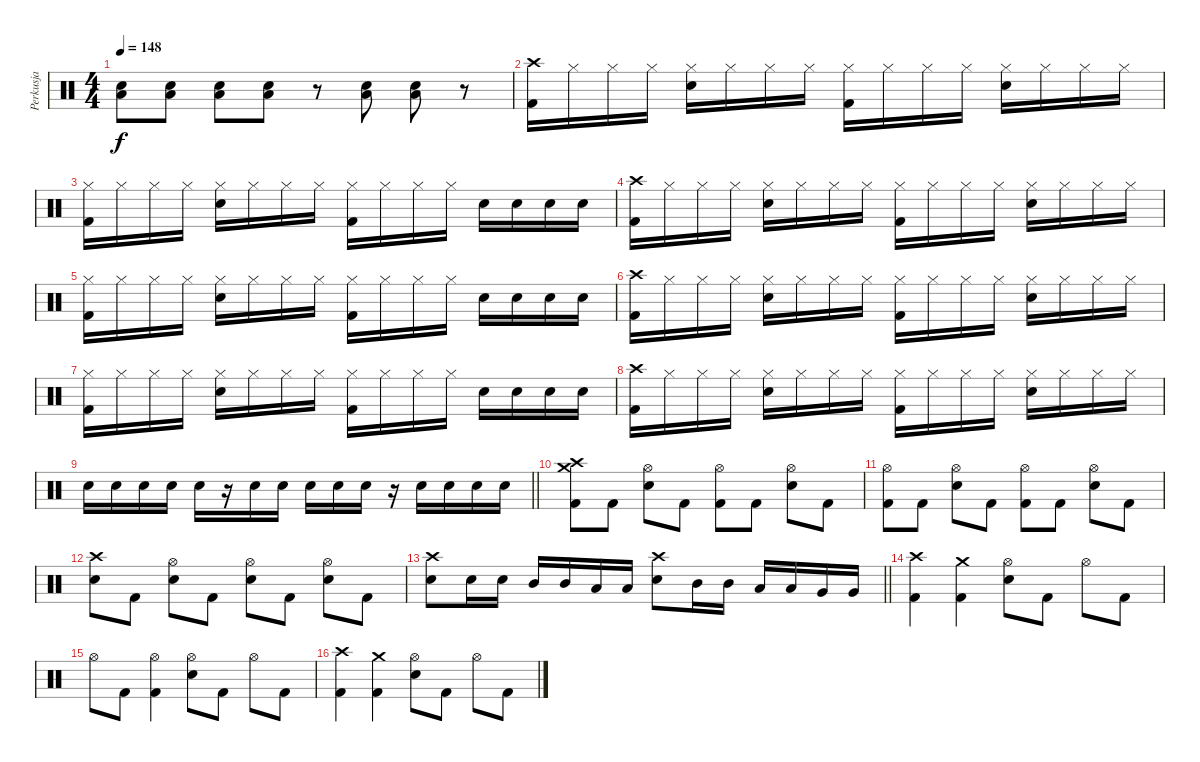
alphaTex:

\track ("Perkusja" "Perkusja") {instrument percussion}
\staff {score}
\articulation defaults
\ts (4 4)
\tempo 148
\clef neutral
\ks c
("Snare (hit) 2" "Low Floor Tom (hit)").8{dy f} ("Snare (hit) 2" "Low Floor Tom (hit)").8 ("Snare (hit) 2" "Low Floor Tom (hit)").8 ("Snare (hit) 2" "Low Floor Tom (hit)").8 r.8 ("Snare (hit) 2" "Low Floor Tom (hit)").8 ("Snare (hit) 2" "Low Floor Tom (hit)").8 r.8 |
("Crash high (hit)" "Kick (hit) 2").16 "Hi-Hat (closed)".16 "Hi-Hat (closed)".16 "Hi-Hat (closed)".16 ("Hi-Hat (closed)" "Snare (hit) 2").16 "Hi-Hat (closed)".16 "Hi-Hat (closed)".16 "Hi-Hat (closed)".16 ("Hi-Hat (closed)" "Kick (hit) 2").16 "Hi-Hat (closed)".16 "Hi-Hat (closed)".16 "Hi-Hat (closed)".16 ("Hi-Hat (closed)" "Snare (hit) 2").16 "Hi-Hat (closed)".16 "Hi-Hat (closed)".16 "Hi-Hat (closed)".16 |
("Hi-Hat (closed)" "Kick (hit) 2").16 "Hi-Hat (closed)".16 "Hi-Hat (closed)".16 "Hi-Hat (closed)".16 ("Hi-Hat (closed)" "Snare (hit) 2").16 "Hi-Hat (closed)".16 "Hi-Hat (closed)".16 "Hi-Hat (closed)".16 ("Hi-Hat (closed)" "Kick (hit) 2").16 "Hi-Hat (closed)".16 "Hi-Hat (closed)".16 "Hi-Hat (closed)".16 "Snare (hit) 2".16 "Snare (hit) 2".16 "Snare (hit) 2".16 "Snare (hit) 2".16 |
("Crash high (hit)" "Kick (hit) 2").16 "Hi-Hat (closed)".16 "Hi-Hat (closed)".16 "Hi-Hat (closed)".16 ("Hi-Hat (closed)" "Snare (hit) 2").16 "Hi-Hat (closed)".16 "Hi-Hat (closed)".16 "Hi-Hat (closed)".16 ("Hi-Hat (closed)" "Kick (hit) 2").16 "Hi-Hat (closed)".16 "Hi-Hat (closed)".16 "Hi-Hat (closed)".16 ("Hi-Hat (closed)" "Snare (hit) 2").16 "Hi-Hat (closed)".16 "Hi-Hat (closed)".16 "Hi-Hat (closed)".16 |
("Hi-Hat (closed)" "Kick (hit) 2").16 "Hi-Hat (closed)".16 "Hi-Hat (closed)".16 "Hi-Hat (closed)".16 ("Hi-Hat (closed)" "Snare (hit) 2").16 "Hi-Hat (closed)".16 "Hi-Hat (closed)".16 "Hi-Hat (closed)".16 ("Hi-Hat (closed)" "Kick (hit) 2").16 "Hi-Hat (closed)".16 "Hi-Hat (closed)".16 "Hi-Hat (closed)".16 "Snare (hit) 2".16 "Snare (hit) 2".16 "Snare (hit) 2".16 "Snare (hit) 2".16 |
("Crash high (hit)" "Kick (hit) 2").16 "Hi-Hat (closed)".16 "Hi-Hat (closed)".16 "Hi-Hat (closed)".16 ("Hi-Hat (closed)" "Snare (hit) 2").16 "Hi-Hat (closed)".16 "Hi-Hat (closed)".16 "Hi-Hat (closed)".16 ("Hi-Hat (closed)" "Kick (hit) 2").16 "Hi-Hat (closed)".16 "Hi-Hat (closed)".16 "Hi-Hat (closed)".16 ("Hi-Hat (closed)" "Snare (hit) 2").16 "Hi-Hat (closed)".16 "Hi-Hat (closed)".16 "Hi-Hat (closed)".16 |
("Hi-Hat (closed)" "Kick (hit) 2").16 "Hi-Hat (closed)".16 "Hi-Hat (closed)".16 "Hi-Hat (closed)".16 ("Hi-Hat (closed)" "Snare (hit) 2").16 "Hi-Hat (closed)".16 "Hi-Hat (closed)".16 "Hi-Hat (closed)".16 ("Hi-Hat (closed)" "Kick (hit) 2").16 "Hi-Hat (closed)".16 "Hi-Hat (closed)".16 "Hi-Hat (closed)".16 "Snare (hit) 2".16 "Snare (hit) 2".16 "Snare (hit) 2".16 "Snare (hit) 2".16 |
("Crash high (hit)" "Kick (hit) 2").16 "Hi-Hat (closed)".16 "Hi-Hat (closed)".16 "Hi-Hat (closed)".16 ("Hi-Hat (closed)" "Snare (hit) 2").16 "Hi-Hat (closed)".16 "Hi-Hat (closed)".16 "Hi-Hat (closed)".16 ("Hi-Hat (closed)" "Kick (hit) 2").16 "Hi-Hat (closed)".16 "Hi-Hat (closed)".16 "Hi-Hat (closed)".16 ("Hi-Hat (closed)" "Snare (hit) 2").16 "Hi-Hat (closed)".16 "Hi-Hat (closed)".16 "Hi-Hat (closed)".16 |
\barLineRight lightlight "Snare (hit) 2".16 "Snare (hit) 2".16 "Snare (hit) 2".16 "Snare (hit) 2".16 "Snare (hit) 2".16
r.16 "Snare (hit) 2".16 "Snare (hit) 2".16 "Snare (hit) 2".16 "Snare (hit) 2".16 "Snare (hit) 2".16 r.16 "Snare (hit) 2".16 "Snare (hit) 2".16 "Snare (hit) 2".16 "Snare (hit) 2".16 |
("Crash high (hit)" "Crash medium (hit)" "Kick (hit) 2").8 "Kick (hit) 2".8 ("Hi-Hat (open)" "Snare (hit) 2").8 "Kick (hit) 2".8 ("Hi-Hat (open)" "Kick (hit) 2").8 "Kick (hit) 2".8 ("Hi-Hat (open)" "Snare (hit) 2").8 "Kick (hit) 2".8 |
("Hi-Hat (open)" "Kick (hit) 2").8 "Kick (hit) 2".8 ("Hi-Hat (open)" "Snare (hit) 2").8 "Kick (hit) 2".8 ("Hi-Hat (open)" "Kick (hit) 2").8 "Kick (hit) 2".8 ("Hi-Hat (open)" "Snare (hit) 2").8 "Kick (hit) 2".8 |
("Crash high (hit)" "Snare (hit) 2").8 "Kick (hit) 2".8 ("Hi-Hat (open)" "Snare (hit) 2").8 "Kick (hit) 2".8 ("Hi-Hat (open)" "Snare (hit) 2").8 "Kick (hit) 2".8 ("Hi-Hat (open)" "Snare (hit) 2").8 "Kick (hit) 2".8 |
\barLineRight lightlight
("Crash high (hit)" "Snare (hit) 2").8 "Snare (hit) 2".16 "Snare (hit) 2".16 "Mid Tom (hit)".16 "Mid Tom (hit)".16 "Low Tom (hit)".16 "Low Tom (hit)".16 ("Crash high (hit)" "Snare (hit) 2").8 "Mid Tom (hit)".16 "Mid Tom (hit)".16 "Low Tom (hit)".16 "Low Tom (hit)".16 "Very Low Tom (hit)".16 "Very Low Tom (hit)".16 |
("Crash high (hit)" "Kick (hit) 2").4 ("Crash medium (hit)" "Kick (hit) 2").4 ("Hi-Hat (open)" "Snare (hit) 2").8 "Kick (hit) 2".8 "Hi-Hat (open)".8 "Kick (hit) 2".8 |
"Hi-Hat (open)".8 "Kick (hit) 2".8 ("Hi-Hat (open)" "Kick (hit) 2").4 ("Hi-Hat (open)" "Snare (hit) 2").8 "Kick (hit) 2".8 "Hi-Hat (open)".8 "Kick (hit) 2".8 |
("Crash high (hit)" "Kick (hit) 2").4 ("Crash medium (hit)" "Kick (hit) 2").4 ("Hi-Hat (open)" "Snare (hit) 2").8 "Kick (hit) 2".8 "Hi-Hat (open)".8 "Kick (hit) 2".8
